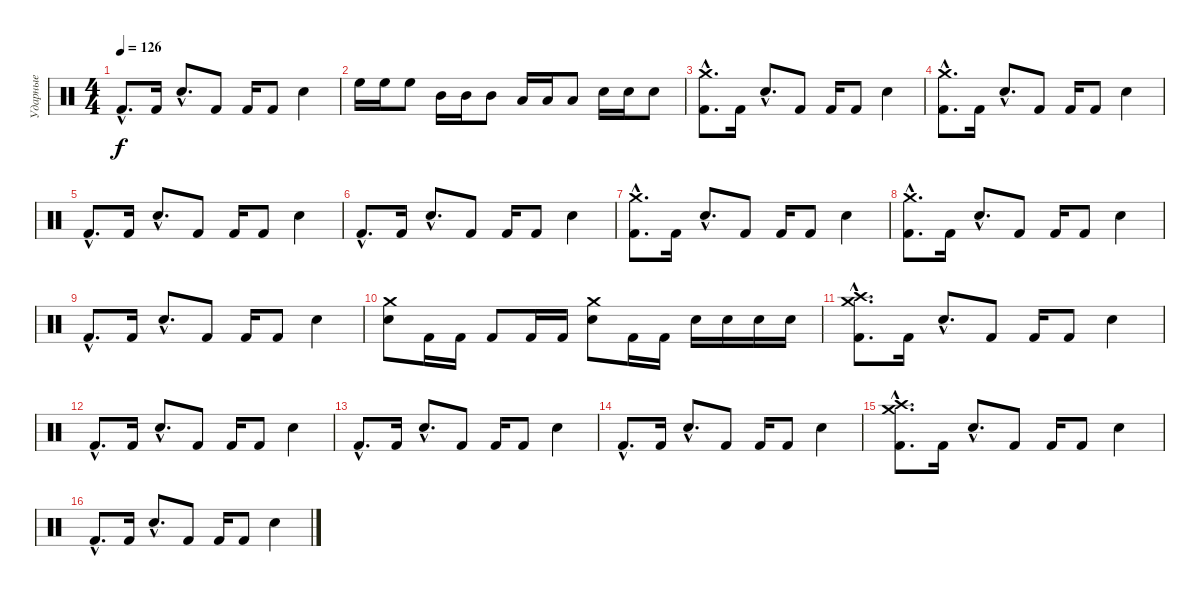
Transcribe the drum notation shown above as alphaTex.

\track ("Ударные" "Ударные") {instrument percussion}
\staff {score}
\articulation defaults
\ts (4 4)
\tempo 126
\clef neutral
\ks c "Kick (hit) 2"{hac}.8{d dy f} "Kick (hit) 2".16 "Snare (hit) 2"{hac}.8{d} "Kick (hit) 2".8 "Kick (hit) 2".16 "Kick (hit) 2".8 "Snare (hit) 2".4
|
"High Floor Tom (hit)".16 "High Floor Tom (hit)".16 "High Floor Tom (hit)".8 "Mid Tom (hit)".16 "Mid Tom (hit)".16 "Mid Tom (hit)".8 "Low Tom (hit)".16 "Low Tom (hit)".16 "Low Tom (hit)".8 "Snare (hit) 2".16 "Snare (hit) 2".16 "Snare (hit) 2".8 |
("Kick (hit) 2"{hac} "Crash medium (hit)"{hac}).8{d} "Kick (hit) 2".16 "Snare (hit) 2"{hac}.8{d} "Kick (hit) 2".8 "Kick (hit) 2".16 "Kick (hit) 2".8 "Snare (hit) 2".4 |
("Kick (hit) 2"{hac} "Crash medium (hit)"{hac}).8{d} "Kick (hit) 2".16 "Snare (hit) 2"{hac}.8{d} "Kick (hit) 2".8 "Kick (hit) 2".16 "Kick (hit) 2".8 "Snare (hit) 2".4 |
"Kick (hit) 2"{hac}.8{d} "Kick (hit) 2".16 "Snare (hit) 2"{hac}.8{d} "Kick (hit) 2".8 "Kick (hit) 2".16 "Kick (hit) 2".8 "Snare (hit) 2".4 |
"Kick (hit) 2"{hac}.8{d} "Kick (hit) 2".16 "Snare (hit) 2"{hac}.8{d} "Kick (hit) 2".8 "Kick (hit) 2".16 "Kick (hit) 2".8 "Snare (hit) 2".4 |
("Kick (hit) 2"{hac} "Crash medium (hit)"{hac}).8{d} "Kick (hit) 2".16 "Snare (hit) 2"{hac}.8{d} "Kick (hit) 2".8 "Kick (hit) 2".16 "Kick (hit) 2".8 "Snare (hit) 2".4 |
("Kick (hit) 2"{hac} "Crash medium (hit)"{hac}).8{d} "Kick (hit) 2".16 "Snare (hit) 2"{hac}.8{d} "Kick (hit) 2".8 "Kick (hit) 2".16 "Kick (hit) 2".8 "Snare (hit) 2".4 |
"Kick (hit) 2"{hac}.8{d} "Kick (hit) 2".16 "Snare (hit) 2"{hac}.8{d} "Kick (hit) 2".8 "Kick (hit) 2".16 "Kick (hit) 2".8 "Snare (hit) 2".4 |
("Crash medium (hit)" "Snare (hit) 2").8 "Kick (hit) 2".16 "Kick (hit) 2".16 "Kick (hit) 2".8 "Kick (hit) 2".16 "Kick (hit) 2".16 ("Crash medium (hit)" "Snare (hit) 2").8 "Kick (hit) 2".16 "Kick (hit) 2".16 "Snare (hit) 2".16 "Snare (hit) 2".16 "Snare (hit) 2".16 "Snare (hit) 2".16 |
("Kick (hit) 2"{hac} "Crash high (hit)"{hac} "Crash medium (hit)"{hac}).8{d} "Kick (hit) 2".16 "Snare (hit) 2"{hac}.8{d} "Kick (hit) 2".8 "Kick (hit) 2".16 "Kick (hit) 2".8 "Snare (hit) 2".4 |
"Kick (hit) 2"{hac}.8{d} "Kick (hit) 2".16 "Snare (hit) 2"{hac}.8{d} "Kick (hit) 2".8 "Kick (hit) 2".16 "Kick (hit) 2".8 "Snare (hit) 2".4 |
"Kick (hit) 2"{hac}.8{d} "Kick (hit) 2".16 "Snare (hit) 2"{hac}.8{d} "Kick (hit) 2".8 "Kick (hit) 2".16 "Kick (hit) 2".8 "Snare (hit) 2".4 |
"Kick (hit) 2"{hac}.8{d} "Kick (hit) 2".16 "Snare (hit) 2"{hac}.8{d} "Kick (hit) 2".8 "Kick (hit) 2".16 "Kick (hit) 2".8 "Snare (hit) 2".4 |
("Kick (hit) 2"{hac} "Crash high (hit)"{hac} "Crash medium (hit)"{hac}).8{d} "Kick (hit) 2".16 "Snare (hit) 2"{hac}.8{d} "Kick (hit) 2".8 "Kick (hit) 2".16 "Kick (hit) 2".8 "Snare (hit) 2".4 |
"Kick (hit) 2"{hac}.8{d} "Kick (hit) 2".16 "Snare (hit) 2"{hac}.8{d} "Kick (hit) 2".8 "Kick (hit) 2".16 "Kick (hit) 2".8 "Snare (hit) 2".4
